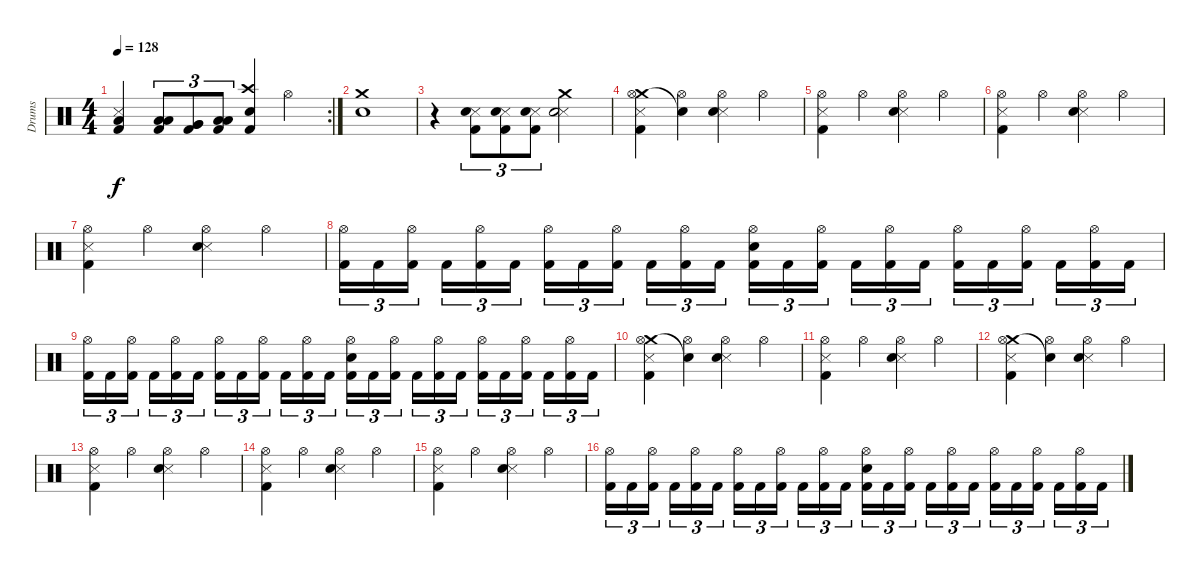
\track ("Drums" "Drums") {instrument percussion}
\staff {score}
\articulation defaults
\rc 2
\ts (4 4)
\tempo 128
\clef neutral
\ks c
("Snare (side stick) 3" "Low Floor Tom (hit)" "Kick (hit) 2").4{dy f} ("Low Tom (hit)" "Low Tom (hit)" "Kick (hit) 2").8{tu (3 2)} ("Very Low Tom (hit)" "Very Low Tom (hit)" "Kick (hit) 2").8{tu (3 2)} ("Low Floor Tom (hit)" "Low Floor Tom (hit)" "Kick (hit) 2").8{tu (3 2)} ("Crash high (hit)" "Electric Snare (hit)" "Kick (hit) 2").4 "Hi-Hat (open)".4 |
("Crash medium (hit)" "Electric Snare (hit)").1 |
r.4 ("Snare (side stick) 3" "Electric Snare (hit)" "Kick (hit) 2").8{tu (3 2)} ("Snare (side stick) 3" "Electric Snare (hit)" "Kick (hit) 2").8{tu (3 2)} ("Snare (side stick) 3" "Electric Snare (hit)" "Kick (hit) 2").8{tu (3 2)} ("Crash medium (hit)" "Snare (side stick) 3" "Electric Snare (hit)").2 |
("Crash medium (hit)" "Snare (side stick) 3" "Hi-Hat (open)" "Kick (hit) 2").4 ("Snare (hit)"{t} "Hi-Hat (open)").4 ("Snare (side stick) 3" "Hi-Hat (open)" "Electric Snare (hit)").4 "Hi-Hat (open)".4 |
("Snare (side stick) 3" "Hi-Hat (open)" "Kick (hit) 2").4 "Hi-Hat (open)".4 ("Snare (side stick) 3" "Hi-Hat (open)" "Electric Snare (hit)").4 "Hi-Hat (open)".4 |
("Snare (side stick) 3" "Hi-Hat (open)" "Kick (hit) 2").4 "Hi-Hat (open)".4 ("Snare (side stick) 3" "Hi-Hat (open)" "Electric Snare (hit)").4 "Hi-Hat (open)".4 |
("Snare (side stick) 3" "Hi-Hat (open)" "Kick (hit) 2").4 "Hi-Hat (open)".4 ("Snare (side stick) 3" "Hi-Hat (open)" "Electric Snare (hit)").4 "Hi-Hat (open)".4 |
("Hi-Hat (open)" "Kick (hit) 2").16{tu (3 2)} "Kick (hit) 2".16{tu (3 2)} ("Hi-Hat (open)" "Kick (hit) 2").16{tu (3 2)} "Kick (hit) 2".16{tu (3 2)} ("Hi-Hat (open)" "Kick (hit) 2").16{tu (3 2)} "Kick (hit) 2".16{tu (3 2)} ("Hi-Hat (open)" "Kick (hit) 2").16{tu (3 2)} "Kick (hit) 2".16{tu (3 2)} ("Hi-Hat (open)" "Kick (hit) 2").16{tu (3 2)} "Kick (hit) 2".16{tu (3 2)} ("Hi-Hat (open)" "Kick (hit) 2").16{tu (3 2)} "Kick (hit) 2".16{tu (3 2)} ("Hi-Hat (open)" "Electric Snare (hit)" "Kick (hit) 2").16{tu (3 2)} "Kick (hit) 2".16{tu (3 2)} ("Hi-Hat (open)" "Kick (hit) 2").16{tu (3 2)} "Kick (hit) 2".16{tu (3 2)} ("Hi-Hat (open)" "Kick (hit) 2").16{tu (3 2)} "Kick (hit) 2".16{tu (3 2)} ("Hi-Hat (open)" "Kick (hit) 2").16{tu (3 2)} "Kick (hit) 2".16{tu (3 2)} ("Hi-Hat (open)" "Kick (hit) 2").16{tu (3 2)} "Kick (hit) 2".16{tu (3 2)} ("Hi-Hat (open)" "Kick (hit) 2").16{tu (3 2)} "Kick (hit) 2".16{tu (3 2)} |
("Hi-Hat (open)" "Kick (hit) 2").16{tu (3 2)} "Kick (hit) 2".16{tu (3 2)} ("Hi-Hat (open)" "Kick (hit) 2").16{tu (3 2)} "Kick (hit) 2".16{tu (3 2)} ("Hi-Hat (open)" "Kick (hit) 2").16{tu (3 2)} "Kick (hit) 2".16{tu (3 2)} ("Hi-Hat (open)" "Kick (hit) 2").16{tu (3 2)} "Kick (hit) 2".16{tu (3 2)} ("Hi-Hat (open)" "Kick (hit) 2").16{tu (3 2)} "Kick (hit) 2".16{tu (3 2)} ("Hi-Hat (open)" "Kick (hit) 2").16{tu (3 2)} "Kick (hit) 2".16{tu (3 2)} ("Hi-Hat (open)" "Electric Snare (hit)" "Kick (hit) 2").16{tu (3 2)} "Kick (hit) 2".16{tu (3 2)} ("Hi-Hat (open)" "Kick (hit) 2").16{tu (3 2)} "Kick (hit) 2".16{tu (3 2)} ("Hi-Hat (open)" "Kick (hit) 2").16{tu (3 2)} "Kick (hit) 2".16{tu (3 2)} ("Hi-Hat (open)" "Kick (hit) 2").16{tu (3 2)} "Kick (hit) 2".16{tu (3 2)} ("Hi-Hat (open)" "Kick (hit) 2").16{tu (3 2)} "Kick (hit) 2".16{tu (3 2)} ("Hi-Hat (open)" "Kick (hit) 2").16{tu (3 2)} "Kick (hit) 2".16{tu (3 2)} |
("Crash medium (hit)" "Snare (side stick) 3" "Hi-Hat (open)" "Kick (hit) 2").4 ("Snare (hit)"{t} "Hi-Hat (open)").4 ("Snare (side stick) 3" "Hi-Hat (open)" "Electric Snare (hit)").4 "Hi-Hat (open)".4 |
("Snare (side stick) 3" "Hi-Hat (open)" "Kick (hit) 2").4 "Hi-Hat (open)".4 ("Snare (side stick) 3" "Hi-Hat (open)" "Electric Snare (hit)").4 "Hi-Hat (open)".4 |
("Crash medium (hit)" "Snare (side stick) 3" "Hi-Hat (open)" "Kick (hit) 2").4 ("Snare (hit)"{t} "Hi-Hat (open)").4 ("Snare (side stick) 3" "Hi-Hat (open)" "Electric Snare (hit)").4 "Hi-Hat (open)".4 |
("Snare (side stick) 3" "Hi-Hat (open)" "Kick (hit) 2").4 "Hi-Hat (open)".4 ("Snare (side stick) 3" "Hi-Hat (open)" "Electric Snare (hit)").4 "Hi-Hat (open)".4 |
("Snare (side stick) 3" "Hi-Hat (open)" "Kick (hit) 2").4 "Hi-Hat (open)".4 ("Snare (side stick) 3" "Hi-Hat (open)" "Electric Snare (hit)").4 "Hi-Hat (open)".4 |
("Snare (side stick) 3" "Hi-Hat (open)" "Kick (hit) 2").4 "Hi-Hat (open)".4 ("Snare (side stick) 3" "Hi-Hat (open)" "Electric Snare (hit)").4 "Hi-Hat (open)".4 |
("Hi-Hat (open)" "Kick (hit) 2").16{tu (3 2)} "Kick (hit) 2".16{tu (3 2)} ("Hi-Hat (open)" "Kick (hit) 2").16{tu (3 2)} "Kick (hit) 2".16{tu (3 2)} ("Hi-Hat (open)" "Kick (hit) 2").16{tu (3 2)} "Kick (hit) 2".16{tu (3 2)} ("Hi-Hat (open)" "Kick (hit) 2").16{tu (3 2)} "Kick (hit) 2".16{tu (3 2)} ("Hi-Hat (open)" "Kick (hit) 2").16{tu (3 2)} "Kick (hit) 2".16{tu (3 2)} ("Hi-Hat (open)" "Kick (hit) 2").16{tu (3 2)} "Kick (hit) 2".16{tu (3 2)} ("Hi-Hat (open)" "Electric Snare (hit)" "Kick (hit) 2").16{tu (3 2)} "Kick (hit) 2".16{tu (3 2)} ("Hi-Hat (open)" "Kick (hit) 2").16{tu (3 2)} "Kick (hit) 2".16{tu (3 2)} ("Hi-Hat (open)" "Kick (hit) 2").16{tu (3 2)} "Kick (hit) 2".16{tu (3 2)} ("Hi-Hat (open)" "Kick (hit) 2").16{tu (3 2)} "Kick (hit) 2".16{tu (3 2)} ("Hi-Hat (open)" "Kick (hit) 2").16{tu (3 2)} "Kick (hit) 2".16{tu (3 2)} ("Hi-Hat (open)" "Kick (hit) 2").16{tu (3 2)} "Kick (hit) 2".16{tu (3 2)}
